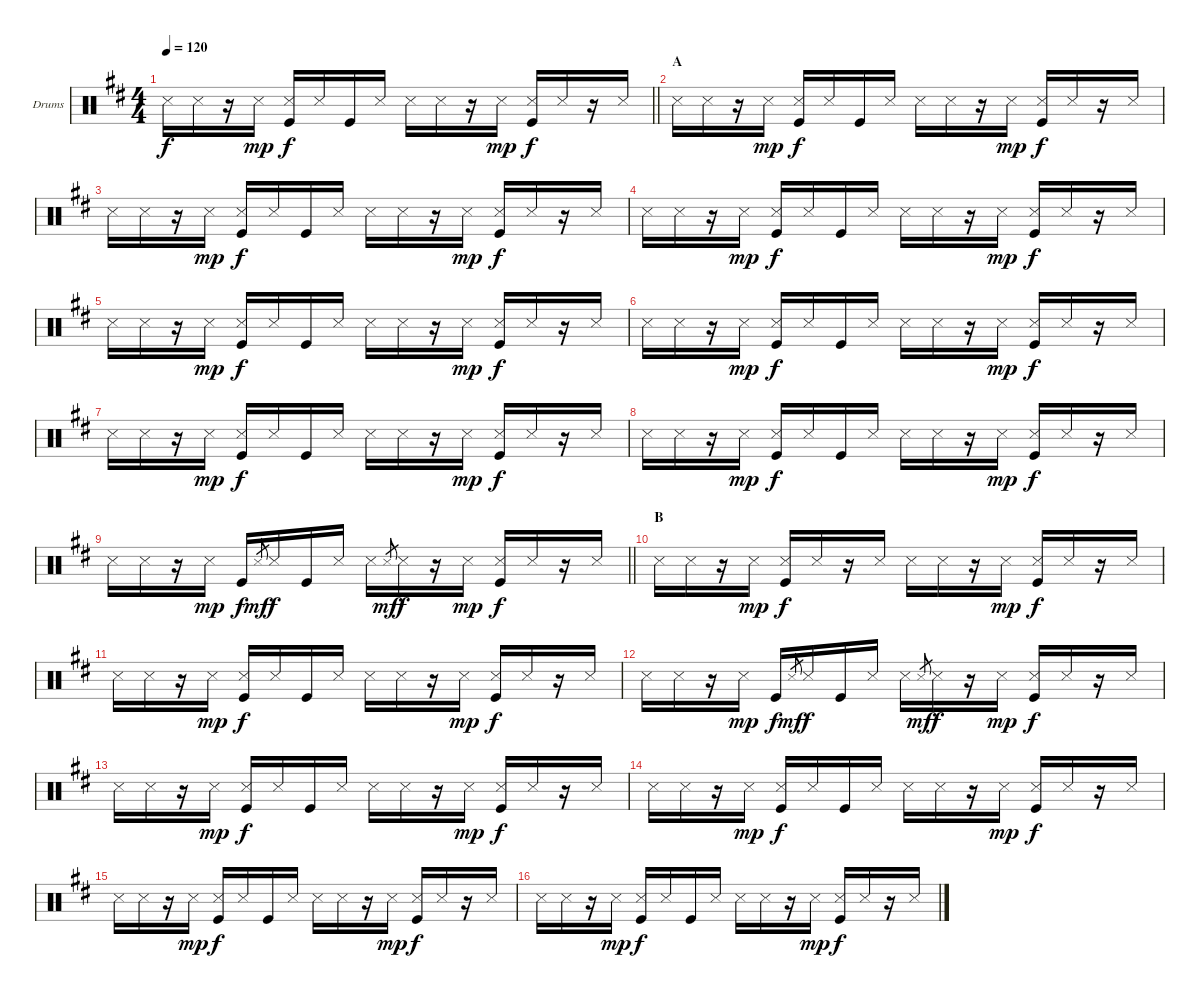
\bracketExtendMode groupsimilarinstruments
\firstSystemTrackNameOrientation horizontal
\otherSystemsTrackNameOrientation horizontal
\track ("Drumkit" "Drums") {instrument percussion}
\staff {score}
\articulation defaults
\ts (4 4)
\tempo 120
\clef neutral
\barLineRight lightlight
\ks d "Snare (side stick) 3".16{dy f} "Snare (side stick) 3".16
r.16 "Snare (side stick) 3".16{dy mp} ("Snare (side stick) 3" "Kick (hit)").16{dy f} "Snare (side stick) 3".16 "Kick (hit)".16 "Snare (side stick) 3".16 "Snare (side stick) 3".16 "Snare (side stick) 3".16 r.16 "Snare (side stick) 3".16{dy mp} ("Snare (side stick) 3" "Kick (hit)").16{dy f} "Snare (side stick) 3".16 r.16 "Snare (side stick) 3".16 |
\section ("" "A")
"Snare (side stick) 3".16 "Snare (side stick) 3".16 r.16 "Snare (side stick) 3".16{dy mp} ("Snare (side stick) 3" "Kick (hit)").16{dy f} "Snare (side stick) 3".16 "Kick (hit)".16 "Snare (side stick) 3".16 "Snare (side stick) 3".16 "Snare (side stick) 3".16 r.16 "Snare (side stick) 3".16{dy mp} ("Snare (side stick) 3" "Kick (hit)").16{dy f} "Snare (side stick) 3".16 r.16 "Snare (side stick) 3".16 |
"Snare (side stick) 3".16 "Snare (side stick) 3".16 r.16 "Snare (side stick) 3".16{dy mp} ("Snare (side stick) 3" "Kick (hit)").16{dy f} "Snare (side stick) 3".16 "Kick (hit)".16 "Snare (side stick) 3".16 "Snare (side stick) 3".16 "Snare (side stick) 3".16 r.16 "Snare (side stick) 3".16{dy mp} ("Snare (side stick) 3" "Kick (hit)").16{dy f} "Snare (side stick) 3".16 r.16 "Snare (side stick) 3".16 |
"Snare (side stick) 3".16 "Snare (side stick) 3".16 r.16 "Snare (side stick) 3".16{dy mp} ("Snare (side stick) 3" "Kick (hit)").16{dy f} "Snare (side stick) 3".16 "Kick (hit)".16 "Snare (side stick) 3".16 "Snare (side stick) 3".16 "Snare (side stick) 3".16 r.16 "Snare (side stick) 3".16{dy mp} ("Snare (side stick) 3" "Kick (hit)").16{dy f} "Snare (side stick) 3".16 r.16 "Snare (side stick) 3".16 |
"Snare (side stick) 3".16 "Snare (side stick) 3".16 r.16 "Snare (side stick) 3".16{dy mp} ("Snare (side stick) 3" "Kick (hit)").16{dy f} "Snare (side stick) 3".16 "Kick (hit)".16 "Snare (side stick) 3".16 "Snare (side stick) 3".16 "Snare (side stick) 3".16 r.16 "Snare (side stick) 3".16{dy mp} ("Snare (side stick) 3" "Kick (hit)").16{dy f} "Snare (side stick) 3".16 r.16 "Snare (side stick) 3".16 |
"Snare (side stick) 3".16 "Snare (side stick) 3".16 r.16 "Snare (side stick) 3".16{dy mp} ("Snare (side stick) 3" "Kick (hit)").16{dy f} "Snare (side stick) 3".16 "Kick (hit)".16 "Snare (side stick) 3".16 "Snare (side stick) 3".16 "Snare (side stick) 3".16 r.16 "Snare (side stick) 3".16{dy mp} ("Snare (side stick) 3" "Kick (hit)").16{dy f} "Snare (side stick) 3".16 r.16 "Snare (side stick) 3".16 |
"Snare (side stick) 3".16 "Snare (side stick) 3".16 r.16 "Snare (side stick) 3".16{dy mp} ("Snare (side stick) 3" "Kick (hit)").16{dy f} "Snare (side stick) 3".16 "Kick (hit)".16 "Snare (side stick) 3".16 "Snare (side stick) 3".16 "Snare (side stick) 3".16 r.16 "Snare (side stick) 3".16{dy mp} ("Snare (side stick) 3" "Kick (hit)").16{dy f} "Snare (side stick) 3".16 r.16 "Snare (side stick) 3".16 |
"Snare (side stick) 3".16 "Snare (side stick) 3".16 r.16 "Snare (side stick) 3".16{dy mp} ("Snare (side stick) 3" "Kick (hit)").16{dy f} "Snare (side stick) 3".16 "Kick (hit)".16 "Snare (side stick) 3".16 "Snare (side stick) 3".16 "Snare (side stick) 3".16 r.16 "Snare (side stick) 3".16{dy mp} ("Snare (side stick) 3" "Kick (hit)").16{dy f} "Snare (side stick) 3".16 r.16 "Snare (side stick) 3".16 |
\barLineRight lightlight "Snare (side stick) 3".16 "Snare (side stick) 3".16
r.16 "Snare (side stick) 3".16{dy mp} "Kick (hit)".16{dy f} "Snare (side stick) 3".8{gr dy mf} "Snare (side stick) 3".16{dy f} "Kick (hit)".16 "Snare (side stick) 3".16 "Snare (side stick) 3".16 "Snare (side stick) 3".8{gr dy mf} "Snare (side stick) 3".16{dy f} r.16 "Snare (side stick) 3".16{dy mp} ("Snare (side stick) 3" "Kick (hit)").16{dy f} "Snare (side stick) 3".16 r.16 "Snare (side stick) 3".16 |
\section ("" "B")
"Snare (side stick) 3".16 "Snare (side stick) 3".16 r.16 "Snare (side stick) 3".16{dy mp} ("Snare (side stick) 3" "Kick (hit)").16{dy f} "Snare (side stick) 3".16 r.16 "Snare (side stick) 3".16 "Snare (side stick) 3".16 "Snare (side stick) 3".16 r.16 "Snare (side stick) 3".16{dy mp} ("Snare (side stick) 3" "Kick (hit)").16{dy f} "Snare (side stick) 3".16 r.16 "Snare (side stick) 3".16 |
"Snare (side stick) 3".16 "Snare (side stick) 3".16 r.16 "Snare (side stick) 3".16{dy mp} ("Snare (side stick) 3" "Kick (hit)").16{dy f} "Snare (side stick) 3".16 "Kick (hit)".16 "Snare (side stick) 3".16 "Snare (side stick) 3".16 "Snare (side stick) 3".16 r.16 "Snare (side stick) 3".16{dy mp} ("Snare (side stick) 3" "Kick (hit)").16{dy f} "Snare (side stick) 3".16 r.16 "Snare (side stick) 3".16 |
"Snare (side stick) 3".16 "Snare (side stick) 3".16 r.16 "Snare (side stick) 3".16{dy mp} "Kick (hit)".16{dy f} "Snare (side stick) 3".8{gr dy mf} "Snare (side stick) 3".16{dy f} "Kick (hit)".16 "Snare (side stick) 3".16 "Snare (side stick) 3".16 "Snare (side stick) 3".8{gr dy mf} "Snare (side stick) 3".16{dy f} r.16 "Snare (side stick) 3".16{dy mp} ("Snare (side stick) 3" "Kick (hit)").16{dy f} "Snare (side stick) 3".16 r.16 "Snare (side stick) 3".16 |
"Snare (side stick) 3".16 "Snare (side stick) 3".16 r.16 "Snare (side stick) 3".16{dy mp} ("Snare (side stick) 3" "Kick (hit)").16{dy f} "Snare (side stick) 3".16 "Kick (hit)".16 "Snare (side stick) 3".16 "Snare (side stick) 3".16 "Snare (side stick) 3".16 r.16 "Snare (side stick) 3".16{dy mp} ("Snare (side stick) 3" "Kick (hit)").16{dy f} "Snare (side stick) 3".16 r.16 "Snare (side stick) 3".16 |
"Snare (side stick) 3".16 "Snare (side stick) 3".16 r.16 "Snare (side stick) 3".16{dy mp} ("Snare (side stick) 3" "Kick (hit)").16{dy f} "Snare (side stick) 3".16 "Kick (hit)".16 "Snare (side stick) 3".16 "Snare (side stick) 3".16 "Snare (side stick) 3".16 r.16 "Snare (side stick) 3".16{dy mp} ("Snare (side stick) 3" "Kick (hit)").16{dy f} "Snare (side stick) 3".16 r.16 "Snare (side stick) 3".16 |
"Snare (side stick) 3".16 "Snare (side stick) 3".16 r.16 "Snare (side stick) 3".16{dy mp} ("Snare (side stick) 3" "Kick (hit)").16{dy f} "Snare (side stick) 3".16 "Kick (hit)".16 "Snare (side stick) 3".16 "Snare (side stick) 3".16 "Snare (side stick) 3".16 r.16 "Snare (side stick) 3".16{dy mp} ("Snare (side stick) 3" "Kick (hit)").16{dy f} "Snare (side stick) 3".16 r.16 "Snare (side stick) 3".16 |
"Snare (side stick) 3".16 "Snare (side stick) 3".16 r.16 "Snare (side stick) 3".16{dy mp} ("Snare (side stick) 3" "Kick (hit)").16{dy f} "Snare (side stick) 3".16 "Kick (hit)".16 "Snare (side stick) 3".16 "Snare (side stick) 3".16 "Snare (side stick) 3".16 r.16 "Snare (side stick) 3".16{dy mp} ("Snare (side stick) 3" "Kick (hit)").16{dy f} "Snare (side stick) 3".16 r.16 "Snare (side stick) 3".16
